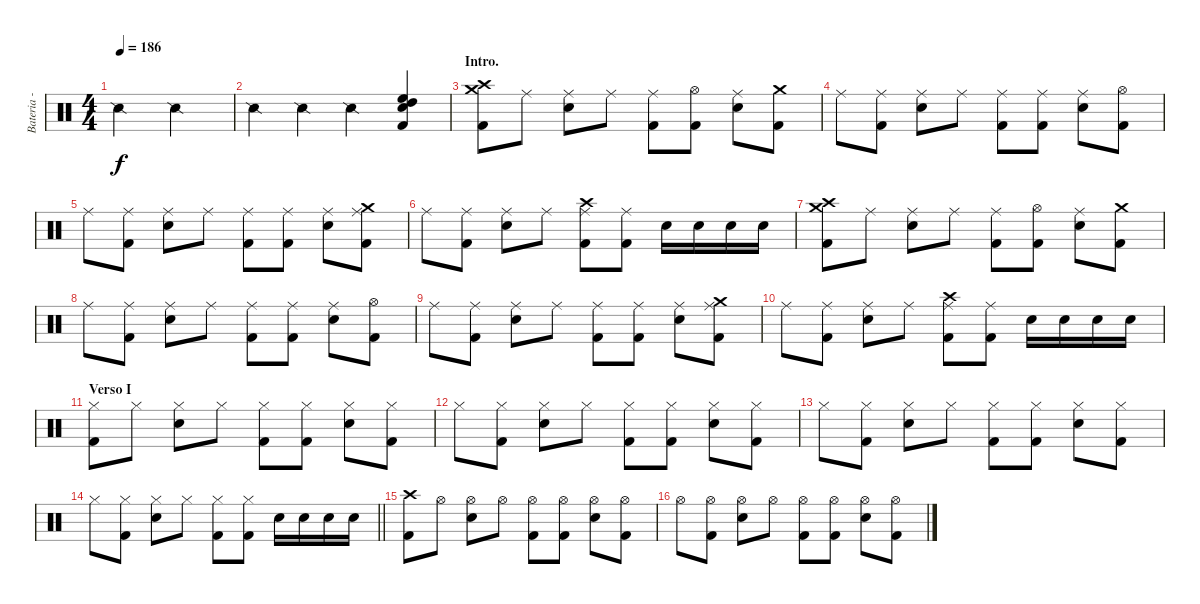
\track ("Bateria - Larzon" "Bateria - ") {instrument percussion}
\staff {score}
\articulation defaults
\ts (4 4)
\tempo 186
\clef neutral
\ks c "Snare (side stick) 2".2{dy f} "Snare (side stick) 2".2
|
"Snare (side stick) 2".4 "Snare (side stick) 2".4 "Snare (side stick) 2".4 ("Kick (hit) 2" "Electric Snare (hit)" "High Floor Tom (hit)" "High Tom (hit)").4 |
\section ("" "Intro.")
("Kick (hit) 2" "Crash medium (hit)" "Crash high (hit)").8 "Ride (middle)".8 ("Snare (hit) 2" "Ride (middle)").8 "Ride (middle)".8 ("Kick (hit) 2" "Ride (middle)").8 ("Kick (hit) 2" "Hi-Hat (open)").8 ("Snare (hit) 2" "Ride (middle)").8 ("Kick (hit) 2" "Crash medium (hit)").8 |
"Ride (middle)".8 ("Kick (hit) 2" "Ride (middle)").8 ("Snare (hit) 2" "Ride (middle)").8 "Ride (middle)".8 ("Kick (hit) 2" "Ride (middle)").8 ("Kick (hit) 2" "Ride (middle)").8 ("Snare (hit) 2" "Ride (middle)").8 ("Kick (hit) 2" "Hi-Hat (open)").8 |
"Ride (middle)".8 ("Kick (hit) 2" "Ride (middle)").8 ("Snare (hit) 2" "Ride (middle)").8 "Ride (middle)".8 ("Kick (hit) 2" "Ride (middle)").8 ("Kick (hit) 2" "Ride (middle)").8 ("Snare (hit) 2" "Ride (middle)").8 ("Kick (hit) 2" "Ride (middle)" "Crash medium (hit)").8 |
"Ride (middle)".8 ("Kick (hit) 2" "Ride (middle)").8 ("Snare (hit) 2" "Ride (middle)").8 "Ride (middle)".8 ("Kick (hit) 2" "Ride (middle)" "Crash high (hit)").8 ("Kick (hit) 2" "Ride (middle)").8 "Snare (hit) 2".16 "Snare (hit) 2".16 "Snare (hit) 2".16 "Snare (hit) 2".16 |
("Kick (hit) 2" "Crash medium (hit)" "Crash high (hit)").8 "Ride (middle)".8 ("Snare (hit) 2" "Ride (middle)").8 "Ride (middle)".8 ("Kick (hit) 2" "Ride (middle)").8 ("Kick (hit) 2" "Hi-Hat (open)").8 ("Snare (hit) 2" "Ride (middle)").8 ("Kick (hit) 2" "Crash medium (hit)").8 |
"Ride (middle)".8 ("Kick (hit) 2" "Ride (middle)").8 ("Snare (hit) 2" "Ride (middle)").8 "Ride (middle)".8 ("Kick (hit) 2" "Ride (middle)").8 ("Kick (hit) 2" "Ride (middle)").8 ("Snare (hit) 2" "Ride (middle)").8 ("Kick (hit) 2" "Hi-Hat (open)").8 |
"Ride (middle)".8 ("Kick (hit) 2" "Ride (middle)").8 ("Snare (hit) 2" "Ride (middle)").8 "Ride (middle)".8 ("Kick (hit) 2" "Ride (middle)").8 ("Kick (hit) 2" "Ride (middle)").8 ("Snare (hit) 2" "Ride (middle)").8 ("Kick (hit) 2" "Ride (middle)" "Crash medium (hit)").8 |
"Ride (middle)".8 ("Kick (hit) 2" "Ride (middle)").8 ("Snare (hit) 2" "Ride (middle)").8 "Ride (middle)".8 ("Kick (hit) 2" "Ride (middle)" "Crash high (hit)").8 ("Kick (hit) 2" "Ride (middle)").8 "Snare (hit) 2".16 "Snare (hit) 2".16 "Snare (hit) 2".16 "Snare (hit) 2".16 |
\section ("" "Verso I")
("Kick (hit) 2" "Hi-Hat (closed)").8 "Hi-Hat (closed)".8 ("Snare (hit) 2" "Hi-Hat (closed)").8 "Hi-Hat (closed)".8 ("Kick (hit) 2" "Hi-Hat (closed)").8 ("Kick (hit) 2" "Hi-Hat (closed)").8 ("Snare (hit) 2" "Hi-Hat (closed)").8 ("Kick (hit) 2" "Hi-Hat (closed)").8 |
"Hi-Hat (closed)".8 ("Kick (hit) 2" "Hi-Hat (closed)").8 ("Snare (hit) 2" "Hi-Hat (closed)").8 "Hi-Hat (closed)".8 ("Kick (hit) 2" "Hi-Hat (closed)").8 ("Kick (hit) 2" "Hi-Hat (closed)").8 ("Snare (hit) 2" "Hi-Hat (closed)").8 ("Kick (hit) 2" "Hi-Hat (closed)").8 |
"Hi-Hat (closed)".8 ("Kick (hit) 2" "Hi-Hat (closed)").8 ("Snare (hit) 2" "Hi-Hat (closed)").8 "Hi-Hat (closed)".8 ("Kick (hit) 2" "Hi-Hat (closed)").8 ("Kick (hit) 2" "Hi-Hat (closed)").8 ("Snare (hit) 2" "Hi-Hat (closed)").8 ("Kick (hit) 2" "Hi-Hat (closed)").8 |
\barLineRight lightlight "Hi-Hat (closed)".8
("Kick (hit) 2" "Hi-Hat (closed)").8 ("Snare (hit) 2" "Hi-Hat (closed)").8 "Hi-Hat (closed)".8 ("Kick (hit) 2" "Hi-Hat (closed)").8 ("Kick (hit) 2" "Hi-Hat (closed)").8 "Snare (hit) 2".16 "Snare (hit) 2".16 "Snare (hit) 2".16 "Snare (hit) 2".16 |
("Kick (hit) 2" "Crash high (hit)").8 "Hi-Hat (open)".8 ("Snare (hit) 2" "Hi-Hat (open)").8 "Hi-Hat (open)".8 ("Kick (hit) 2" "Hi-Hat (open)").8 ("Kick (hit) 2" "Hi-Hat (open)").8 ("Snare (hit) 2" "Hi-Hat (open)").8 ("Kick (hit) 2" "Hi-Hat (open)").8 |
"Hi-Hat (open)".8 ("Kick (hit) 2" "Hi-Hat (open)").8 ("Snare (hit) 2" "Hi-Hat (open)").8 "Hi-Hat (open)".8 ("Kick (hit) 2" "Hi-Hat (open)").8 ("Kick (hit) 2" "Hi-Hat (open)").8 ("Snare (hit) 2" "Hi-Hat (open)").8 ("Kick (hit) 2" "Hi-Hat (open)").8
